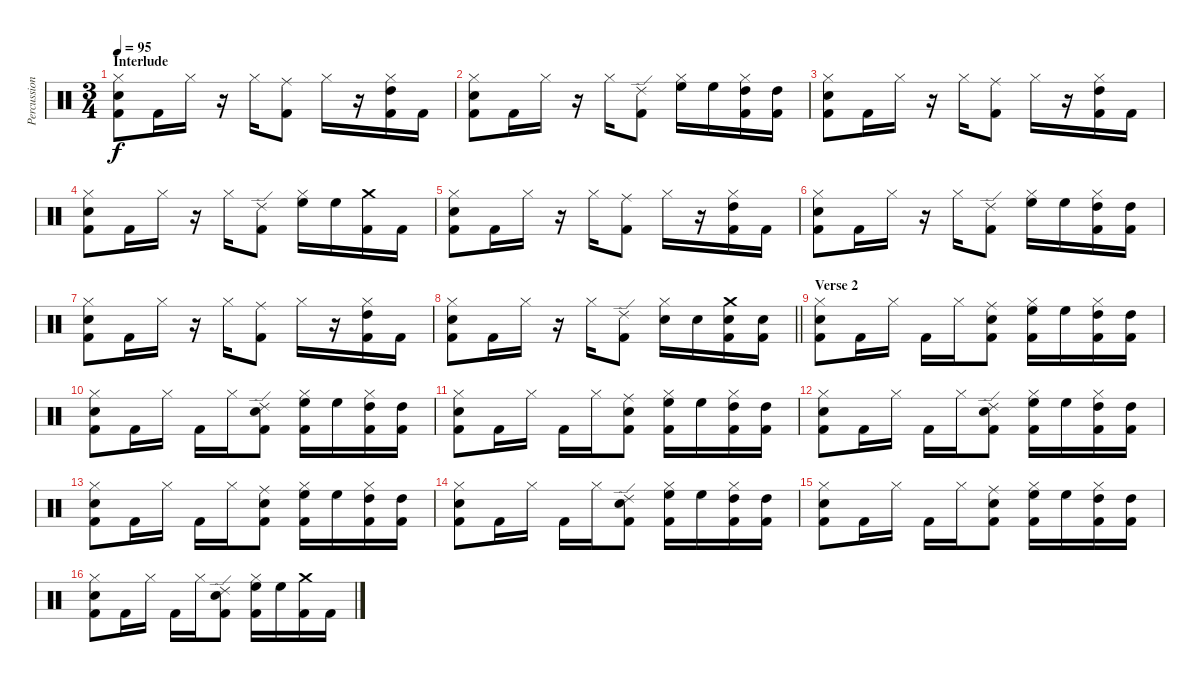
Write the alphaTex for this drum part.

\track ("Percussion" "Percussion") {instrument percussion}
\staff {score}
\articulation defaults
\ts (3 4)
\section ("" "Interlude")
\tempo 95
\clef neutral
\ks c
("Hi-Hat (closed)" "Snare (hit) 2" "Kick (hit) 2").8{dy f} "Kick (hit) 2".16 "Hi-Hat (closed)".16 r.16 "Hi-Hat (closed)".16 ("Ride (middle)" "Kick (hit) 2").8 "Hi-Hat (closed)".16 r.16 ("Hi-Hat (closed)" "High Tom (hit)" "Kick (hit) 2").16 "Kick (hit) 2".16 |
("Hi-Hat (closed)" "Snare (hit) 2" "Kick (hit) 2").8 "Kick (hit) 2".16 "Hi-Hat (closed)".16 r.16 "Hi-Hat (closed)".16 ("Ride (edge) 2" "Kick (hit) 2").8 ("Hi-Hat (closed)" "High Floor Tom (hit)").16 "High Floor Tom (hit)".16 ("Hi-Hat (closed)" "High Tom (hit)" "Kick (hit) 2").16 ("High Tom (hit)" "Kick (hit) 2").16 |
("Hi-Hat (closed)" "Snare (hit) 2" "Kick (hit) 2").8 "Kick (hit) 2".16 "Hi-Hat (closed)".16 r.16 "Hi-Hat (closed)".16 ("Ride (middle)" "Kick (hit) 2").8 "Hi-Hat (closed)".16 r.16 ("Hi-Hat (closed)" "High Tom (hit)" "Kick (hit) 2").16 "Kick (hit) 2".16 |
("Hi-Hat (closed)" "Snare (hit) 2" "Kick (hit) 2").8 "Kick (hit) 2".16 "Hi-Hat (closed)".16 r.16 "Hi-Hat (closed)".16 ("Ride (edge) 2" "Kick (hit) 2").8 ("Hi-Hat (closed)" "High Floor Tom (hit)").16 "High Floor Tom (hit)".16 ("Crash medium (hit)" "Kick (hit) 2").16 "Kick (hit) 2".16 |
("Hi-Hat (closed)" "Snare (hit) 2" "Kick (hit) 2").8 "Kick (hit) 2".16 "Hi-Hat (closed)".16 r.16 "Hi-Hat (closed)".16 ("Ride (middle)" "Kick (hit) 2").8 "Hi-Hat (closed)".16 r.16 ("Hi-Hat (closed)" "High Tom (hit)" "Kick (hit) 2").16 "Kick (hit) 2".16 |
("Hi-Hat (closed)" "Snare (hit) 2" "Kick (hit) 2").8 "Kick (hit) 2".16 "Hi-Hat (closed)".16 r.16 "Hi-Hat (closed)".16 ("Ride (edge) 2" "Kick (hit) 2").8 ("Hi-Hat (closed)" "High Floor Tom (hit)").16 "High Floor Tom (hit)".16 ("Hi-Hat (closed)" "High Tom (hit)" "Kick (hit) 2").16 ("High Tom (hit)" "Kick (hit) 2").16 |
("Hi-Hat (closed)" "Snare (hit) 2" "Kick (hit) 2").8 "Kick (hit) 2".16 "Hi-Hat (closed)".16 r.16 "Hi-Hat (closed)".16 ("Ride (middle)" "Kick (hit) 2").8 "Hi-Hat (closed)".16 r.16 ("Hi-Hat (closed)" "High Tom (hit)" "Kick (hit) 2").16 "Kick (hit) 2".16 |
\barLineRight lightlight
("Hi-Hat (closed)" "Snare (hit) 2" "Kick (hit) 2").8 "Kick (hit) 2".16 "Hi-Hat (closed)".16 r.16 "Hi-Hat (closed)".16 ("Ride (edge) 2" "Kick (hit) 2").8 ("Hi-Hat (closed)" "Snare (hit) 2").16 "Snare (hit) 2".16 ("Crash medium (hit)" "Snare (hit) 2" "Kick (hit) 2").16 ("Snare (hit) 2" "Kick (hit) 2").16 |
\section ("" "Verse 2")
("Hi-Hat (closed)" "Snare (hit) 2" "Kick (hit) 2").8 "Kick (hit) 2".16 "Hi-Hat (closed)".16 "Kick (hit) 2".16 "Hi-Hat (closed)".16 ("Ride (middle)" "Snare (hit) 2" "Kick (hit) 2").8 ("Hi-Hat (closed)" "High Floor Tom (hit)" "Kick (hit) 2").16 "High Floor Tom (hit)".16 ("Hi-Hat (closed)" "High Tom (hit)" "Kick (hit) 2").16 ("High Tom (hit)" "Kick (hit) 2").16 |
("Hi-Hat (closed)" "Snare (hit) 2" "Kick (hit) 2").8 "Kick (hit) 2".16 "Hi-Hat (closed)".16 "Kick (hit) 2".16 "Hi-Hat (closed)".16 ("Ride (edge) 2" "Snare (hit) 2" "Kick (hit) 2").8 ("Hi-Hat (closed)" "High Floor Tom (hit)" "Kick (hit) 2").16 "High Floor Tom (hit)".16 ("Hi-Hat (closed)" "High Tom (hit)" "Kick (hit) 2").16 ("High Tom (hit)" "Kick (hit) 2").16 |
("Hi-Hat (closed)" "Snare (hit) 2" "Kick (hit) 2").8 "Kick (hit) 2".16 "Hi-Hat (closed)".16 "Kick (hit) 2".16 "Hi-Hat (closed)".16 ("Ride (middle)" "Snare (hit) 2" "Kick (hit) 2").8 ("Hi-Hat (closed)" "High Floor Tom (hit)" "Kick (hit) 2").16 "High Floor Tom (hit)".16 ("Hi-Hat (closed)" "High Tom (hit)" "Kick (hit) 2").16 ("High Tom (hit)" "Kick (hit) 2").16 |
("Hi-Hat (closed)" "Snare (hit) 2" "Kick (hit) 2").8 "Kick (hit) 2".16 "Hi-Hat (closed)".16 "Kick (hit) 2".16 "Hi-Hat (closed)".16 ("Ride (edge) 2" "Snare (hit) 2" "Kick (hit) 2").8 ("Hi-Hat (closed)" "High Floor Tom (hit)" "Kick (hit) 2").16 "High Floor Tom (hit)".16 ("Hi-Hat (closed)" "High Tom (hit)" "Kick (hit) 2").16 ("High Tom (hit)" "Kick (hit) 2").16 |
("Hi-Hat (closed)" "Snare (hit) 2" "Kick (hit) 2").8 "Kick (hit) 2".16 "Hi-Hat (closed)".16 "Kick (hit) 2".16 "Hi-Hat (closed)".16 ("Ride (middle)" "Snare (hit) 2" "Kick (hit) 2").8 ("Hi-Hat (closed)" "High Floor Tom (hit)" "Kick (hit) 2").16 "High Floor Tom (hit)".16 ("Hi-Hat (closed)" "High Tom (hit)" "Kick (hit) 2").16 ("High Tom (hit)" "Kick (hit) 2").16 |
("Hi-Hat (closed)" "Snare (hit) 2" "Kick (hit) 2").8 "Kick (hit) 2".16 "Hi-Hat (closed)".16 "Kick (hit) 2".16 "Hi-Hat (closed)".16 ("Ride (edge) 2" "Snare (hit) 2" "Kick (hit) 2").8 ("Hi-Hat (closed)" "High Floor Tom (hit)" "Kick (hit) 2").16 "High Floor Tom (hit)".16 ("Hi-Hat (closed)" "High Tom (hit)" "Kick (hit) 2").16 ("High Tom (hit)" "Kick (hit) 2").16 |
("Hi-Hat (closed)" "Snare (hit) 2" "Kick (hit) 2").8 "Kick (hit) 2".16 "Hi-Hat (closed)".16 "Kick (hit) 2".16 "Hi-Hat (closed)".16 ("Ride (middle)" "Snare (hit) 2" "Kick (hit) 2").8 ("Hi-Hat (closed)" "High Floor Tom (hit)" "Kick (hit) 2").16 "High Floor Tom (hit)".16 ("Hi-Hat (closed)" "High Tom (hit)" "Kick (hit) 2").16 ("High Tom (hit)" "Kick (hit) 2").16 |
("Hi-Hat (closed)" "Snare (hit) 2" "Kick (hit) 2").8 "Kick (hit) 2".16 "Hi-Hat (closed)".16 "Kick (hit) 2".16 "Hi-Hat (closed)".16 ("Ride (edge) 2" "Snare (hit) 2" "Kick (hit) 2").8 ("Hi-Hat (closed)" "High Floor Tom (hit)" "Kick (hit) 2").16 "High Floor Tom (hit)".16 ("Crash medium (hit)" "Kick (hit) 2").16 "Kick (hit) 2".16
